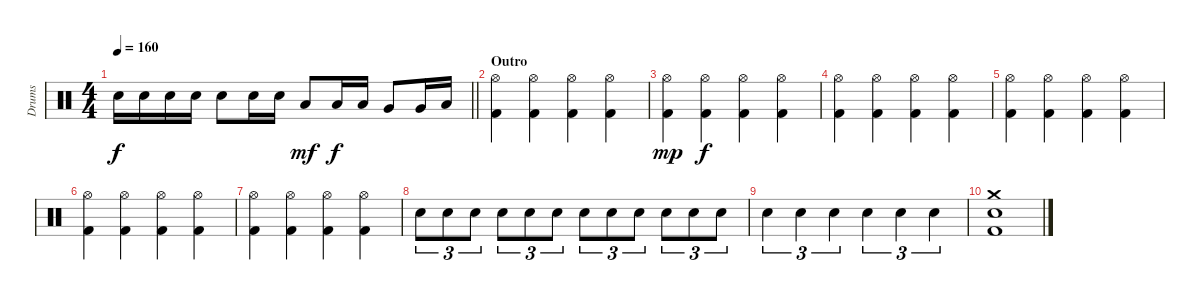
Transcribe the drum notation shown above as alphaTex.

\track ("Drums" "Drums") {instrument percussion}
\staff {score}
\articulation defaults
\ts (4 4)
\tempo 160
\clef neutral
\barLineRight lightlight
\ks c "Electric Snare (hit)".16{dy f} "Electric Snare (hit)".16 "Electric Snare (hit)".16 "Electric Snare (hit)".16 "Electric Snare (hit)".8 "Electric Snare (hit)".16 "Electric Snare (hit)".16 "Low Tom (hit)".8{dy mf} "Low Tom (hit)".16{dy f} "Low Tom (hit)".16 "Very Low Tom (hit)".8 "Very Low Tom (hit)".16 "Low Tom (hit)".16
|
\section ("" "Outro")
("Hi-Hat (open)" "Kick (hit) 2").4 ("Hi-Hat (open)" "Kick (hit) 2").4 ("Hi-Hat (open)" "Kick (hit) 2").4 ("Hi-Hat (open)" "Kick (hit) 2").4 |
("Hi-Hat (open)" "Kick (hit) 2").4{dy mp} ("Hi-Hat (open)" "Kick (hit) 2").4{dy f} ("Hi-Hat (open)" "Kick (hit) 2").4 ("Hi-Hat (open)" "Kick (hit) 2").4 |
("Hi-Hat (open)" "Kick (hit) 2").4 ("Hi-Hat (open)" "Kick (hit) 2").4 ("Hi-Hat (open)" "Kick (hit) 2").4 ("Hi-Hat (open)" "Kick (hit) 2").4 |
("Hi-Hat (open)" "Kick (hit) 2").4 ("Hi-Hat (open)" "Kick (hit) 2").4 ("Hi-Hat (open)" "Kick (hit) 2").4 ("Hi-Hat (open)" "Kick (hit) 2").4 |
("Hi-Hat (open)" "Kick (hit) 2").4 ("Hi-Hat (open)" "Kick (hit) 2").4 ("Hi-Hat (open)" "Kick (hit) 2").4 ("Hi-Hat (open)" "Kick (hit) 2").4 |
("Hi-Hat (open)" "Kick (hit) 2").4 ("Hi-Hat (open)" "Kick (hit) 2").4 ("Hi-Hat (open)" "Kick (hit) 2").4 ("Hi-Hat (open)" "Kick (hit) 2").4 |
"Electric Snare (hit)".8{tu (3 2)} "Electric Snare (hit)".8{tu (3 2)} "Electric Snare (hit)".8{tu (3 2)} "Electric Snare (hit)".8{tu (3 2)} "Electric Snare (hit)".8{tu (3 2)} "Electric Snare (hit)".8{tu (3 2)} "Electric Snare (hit)".8{tu (3 2)} "Electric Snare (hit)".8{tu (3 2)} "Electric Snare (hit)".8{tu (3 2)} "Electric Snare (hit)".8{tu (3 2)} "Electric Snare (hit)".8{tu (3 2)} "Electric Snare (hit)".8{tu (3 2)} |
"Electric Snare (hit)".4{tu (3 2)} "Electric Snare (hit)".4{tu (3 2)} "Electric Snare (hit)".4{tu (3 2)} "Electric Snare (hit)".4{tu (3 2)} "Electric Snare (hit)".4{tu (3 2)} "Electric Snare (hit)".4{tu (3 2)} |
("Crash medium (hit)" "Electric Snare (hit)" "Kick (hit) 2").1
